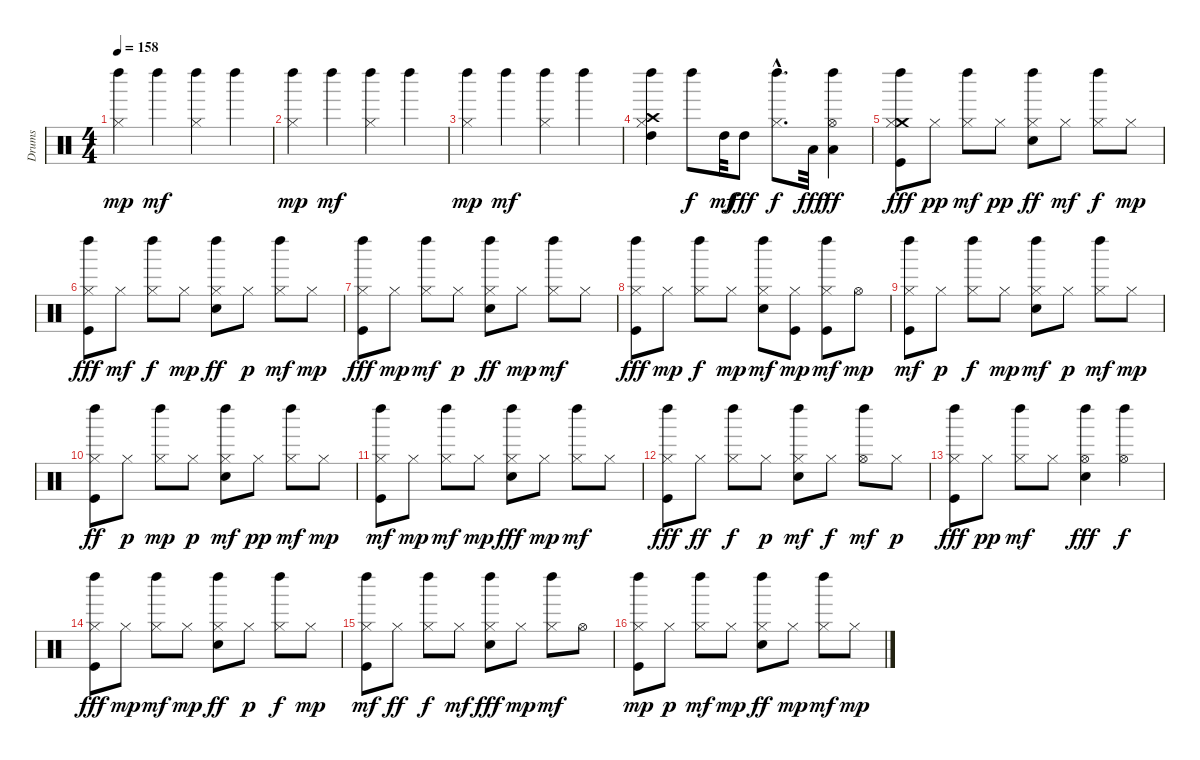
\track ("Drums" "Drums") {instrument percussion}
\staff {score}
\articulation defaults
\ts (4 4)
\tempo 158
\clef neutral
\ks c
("Hi-Hat (closed)" "Left Maraca (hit)").4{dy mp} "Left Maraca (hit)".4{dy mf} ("Hi-Hat (closed)" "Left Maraca (hit)").4 "Left Maraca (hit)".4 |
("Hi-Hat (closed)" "Left Maraca (hit)").4{dy mp} "Left Maraca (hit)".4{dy mf} ("Hi-Hat (closed)" "Left Maraca (hit)").4 "Left Maraca (hit)".4 |
("Hi-Hat (closed)" "Left Maraca (hit)").4{dy mp} "Left Maraca (hit)".4{dy mf} ("Hi-Hat (closed)" "Left Maraca (hit)").4 "Left Maraca (hit)".4 |
("High Tom (hit)" "Left Maraca (hit)" "Hi-Hat (closed)" "Crash high (hit)").4 "Left Maraca (hit)".8{dy f} "High Tom (hit)".32{dy mf} "High Tom (hit)".8{dy fff} ("Left Maraca (hit)"{hac} "Hi-Hat (closed)"{hac}).8{d dy f} "Low Tom (hit)".32{dy fff} ("Low Tom (hit)" "Hi-Hat (open)" "Left Maraca (hit)").4{dy ff} |
("Crash medium (hit)" "Left Maraca (hit)" "Kick (hit)" "Hi-Hat (closed)").8{dy fff} "Hi-Hat (closed)".8{dy pp} ("Hi-Hat (closed)" "Left Maraca (hit)").8{dy mf} "Hi-Hat (closed)".8{dy pp} ("Electric Snare (hit)" "Left Maraca (hit)" "Hi-Hat (closed)").8{dy ff} "Hi-Hat (closed)".8{dy mf} ("Left Maraca (hit)" "Hi-Hat (closed)").8{dy f} "Hi-Hat (closed)".8{dy mp} |
("Kick (hit)" "Hi-Hat (closed)" "Left Maraca (hit)").8{dy fff} "Hi-Hat (closed)".8{dy mf} ("Left Maraca (hit)" "Hi-Hat (closed)").8{dy f} "Hi-Hat (closed)".8{dy mp} ("Electric Snare (hit)" "Hi-Hat (closed)" "Left Maraca (hit)").8{dy ff} "Hi-Hat (closed)".8{dy p} ("Left Maraca (hit)" "Hi-Hat (closed)").8{dy mf} "Hi-Hat (closed)".8{dy mp} |
("Left Maraca (hit)" "Kick (hit)" "Hi-Hat (closed)").8{dy fff} "Hi-Hat (closed)".8{dy mp} ("Left Maraca (hit)" "Hi-Hat (closed)").8{dy mf} "Hi-Hat (closed)".8{dy p} ("Left Maraca (hit)" "Electric Snare (hit)" "Hi-Hat (closed)").8{dy ff} "Hi-Hat (closed)".8{dy mp} ("Left Maraca (hit)" "Hi-Hat (closed)").8{dy mf} "Hi-Hat (closed)".8 |
("Left Maraca (hit)" "Kick (hit)" "Hi-Hat (closed)").8{dy fff} "Hi-Hat (closed)".8{dy mp} ("Left Maraca (hit)" "Hi-Hat (closed)").8{dy f} "Hi-Hat (closed)".8{dy mp} ("Electric Snare (hit)" "Hi-Hat (closed)" "Left Maraca (hit)").8{dy mf} ("Kick (hit)" "Hi-Hat (closed)").8{dy mp} ("Kick (hit)" "Left Maraca (hit)" "Hi-Hat (closed)").8{dy mf} "Hi-Hat (open)".8{dy mp} |
("Left Maraca (hit)" "Kick (hit)" "Hi-Hat (closed)").8{dy mf} "Hi-Hat (closed)".8{dy p} ("Hi-Hat (closed)" "Left Maraca (hit)").8{dy f} "Hi-Hat (closed)".8{dy mp} ("Electric Snare (hit)" "Hi-Hat (closed)" "Left Maraca (hit)").8{dy mf} "Hi-Hat (closed)".8{dy p} ("Left Maraca (hit)" "Hi-Hat (closed)").8{dy mf} "Hi-Hat (closed)".8{dy mp} |
("Kick (hit)" "Left Maraca (hit)" "Hi-Hat (closed)").8{dy ff} "Hi-Hat (closed)".8{dy p} ("Left Maraca (hit)" "Hi-Hat (closed)").8{dy mp} "Hi-Hat (closed)".8{dy p} ("Electric Snare (hit)" "Hi-Hat (closed)" "Left Maraca (hit)").8{dy mf} "Hi-Hat (closed)".8{dy pp} ("Hi-Hat (closed)" "Left Maraca (hit)").8{dy mf} "Hi-Hat (closed)".8{dy mp} |
("Kick (hit)" "Hi-Hat (closed)" "Left Maraca (hit)").8{dy mf} "Hi-Hat (closed)".8{dy mp} ("Left Maraca (hit)" "Hi-Hat (closed)").8{dy mf} "Hi-Hat (closed)".8{dy mp} ("Left Maraca (hit)" "Hi-Hat (closed)" "Electric Snare (hit)").8{dy fff} "Hi-Hat (closed)".8{dy mp} ("Hi-Hat (closed)" "Left Maraca (hit)").8{dy mf} "Hi-Hat (closed)".8 |
("Kick (hit)" "Left Maraca (hit)" "Hi-Hat (closed)").8{dy fff} "Hi-Hat (closed)".8{dy ff} ("Left Maraca (hit)" "Hi-Hat (closed)").8{dy f} "Hi-Hat (closed)".8{dy p} ("Electric Snare (hit)" "Hi-Hat (closed)" "Left Maraca (hit)").8{dy mf} "Hi-Hat (closed)".8{dy f} ("Hi-Hat (open)" "Left Maraca (hit)").8{dy mf} "Hi-Hat (closed)".8{dy p} |
("Hi-Hat (closed)" "Kick (hit)" "Left Maraca (hit)").8{dy fff} "Hi-Hat (closed)".8{dy pp} ("Hi-Hat (closed)" "Left Maraca (hit)").8{dy mf} "Hi-Hat (closed)".8 ("Hi-Hat (open)" "Left Maraca (hit)" "Electric Snare (hit)").4{dy fff} ("Left Maraca (hit)" "Hi-Hat (open)").4{dy f} |
("Hi-Hat (closed)" "Left Maraca (hit)" "Kick (hit)").8{dy fff} "Hi-Hat (closed)".8{dy mp} ("Left Maraca (hit)" "Hi-Hat (closed)").8{dy mf} "Hi-Hat (closed)".8{dy mp} ("Left Maraca (hit)" "Electric Snare (hit)" "Hi-Hat (closed)").8{dy ff} "Hi-Hat (closed)".8{dy p} ("Hi-Hat (closed)" "Left Maraca (hit)").8{dy f} "Hi-Hat (closed)".8{dy mp} |
("Kick (hit)" "Hi-Hat (closed)" "Left Maraca (hit)").8{dy mf} "Hi-Hat (closed)".8{dy ff} ("Hi-Hat (closed)" "Left Maraca (hit)").8{dy f} "Hi-Hat (closed)".8{dy mf} ("Hi-Hat (closed)" "Electric Snare (hit)" "Left Maraca (hit)").8{dy fff} "Hi-Hat (closed)".8{dy mp} ("Hi-Hat (closed)" "Left Maraca (hit)").8{dy mf} "Hi-Hat (open)".8 |
("Kick (hit)" "Hi-Hat (closed)" "Left Maraca (hit)").8{dy mp} "Hi-Hat (closed)".8{dy p} ("Left Maraca (hit)" "Hi-Hat (closed)").8{dy mf} "Hi-Hat (closed)".8{dy mp} ("Left Maraca (hit)" "Electric Snare (hit)" "Hi-Hat (closed)").8{dy ff} "Hi-Hat (closed)".8{dy mp} ("Left Maraca (hit)" "Hi-Hat (closed)").8{dy mf} "Hi-Hat (closed)".8{dy mp}
